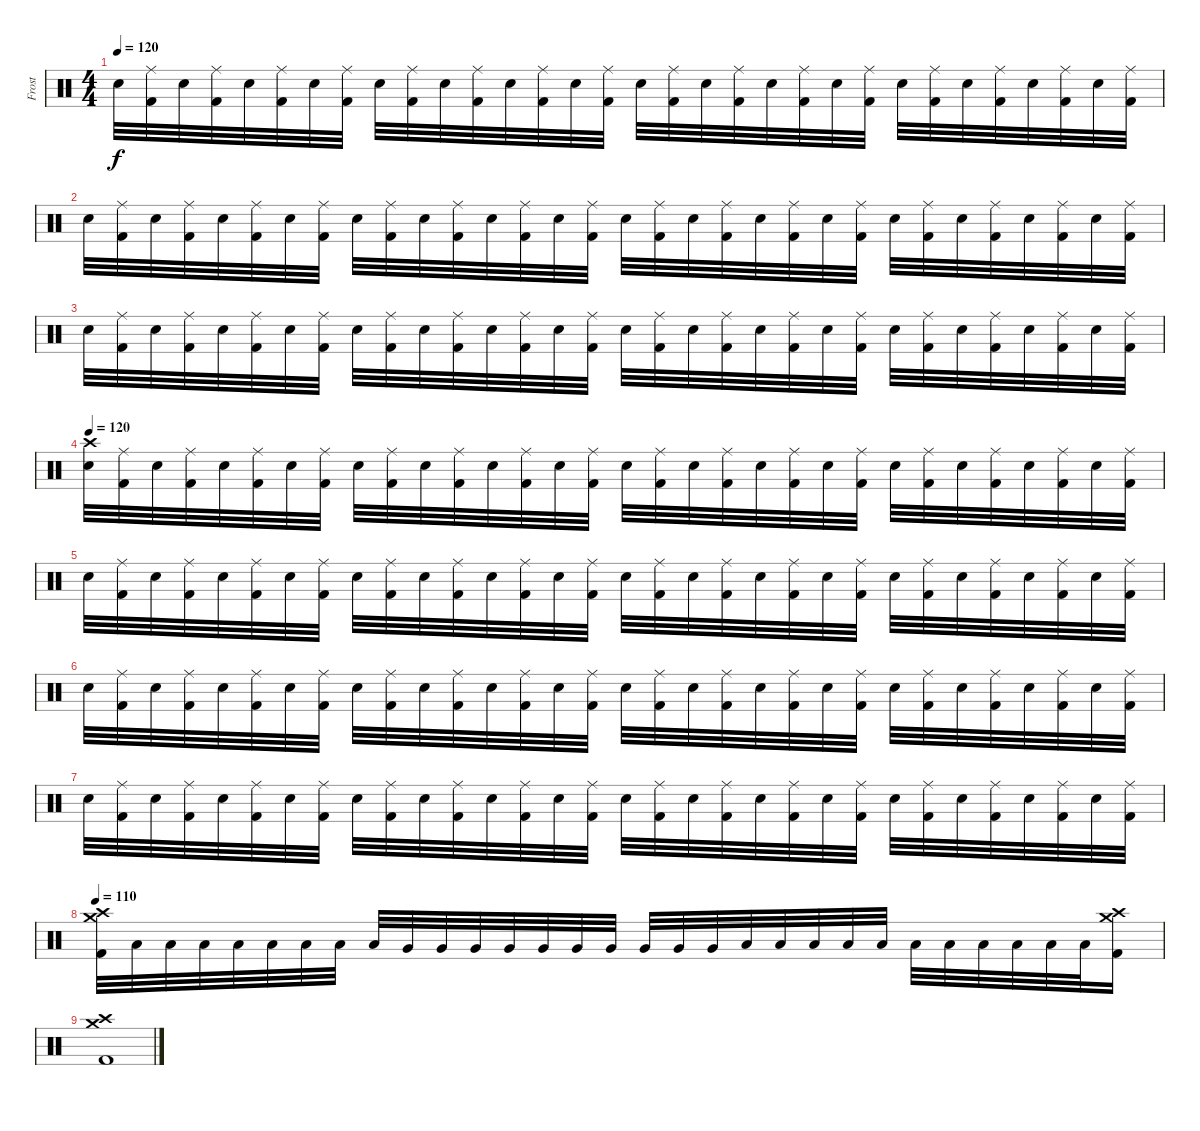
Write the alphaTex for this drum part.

\track ("Frost" "Frost") {instrument percussion}
\staff {score}
\articulation defaults
\ts (4 4)
\tempo 120
\clef neutral
\ks c "Snare (hit) 2".32{dy f}
("Ride (middle)" "Kick (hit) 2").32 "Snare (hit) 2".32 ("Ride (middle)" "Kick (hit) 2").32 "Snare (hit) 2".32 ("Ride (middle)" "Kick (hit) 2").32 "Snare (hit) 2".32 ("Ride (middle)" "Kick (hit) 2").32 "Snare (hit) 2".32 ("Ride (middle)" "Kick (hit) 2").32 "Snare (hit) 2".32 ("Ride (middle)" "Kick (hit) 2").32 "Snare (hit) 2".32 ("Ride (middle)" "Kick (hit) 2").32 "Snare (hit) 2".32 ("Ride (middle)" "Kick (hit) 2").32 "Snare (hit) 2".32 ("Ride (middle)" "Kick (hit) 2").32 "Snare (hit) 2".32 ("Ride (middle)" "Kick (hit) 2").32 "Snare (hit) 2".32 ("Ride (middle)" "Kick (hit) 2").32 "Snare (hit) 2".32 ("Ride (middle)" "Kick (hit) 2").32 "Snare (hit) 2".32 ("Ride (middle)" "Kick (hit) 2").32 "Snare (hit) 2".32 ("Ride (middle)" "Kick (hit) 2").32 "Snare (hit) 2".32 ("Ride (middle)" "Kick (hit) 2").32 "Snare (hit) 2".32 ("Ride (middle)" "Kick (hit) 2").32 |
"Snare (hit) 2".32 ("Ride (middle)" "Kick (hit) 2").32 "Snare (hit) 2".32 ("Ride (middle)" "Kick (hit) 2").32 "Snare (hit) 2".32 ("Ride (middle)" "Kick (hit) 2").32 "Snare (hit) 2".32 ("Ride (middle)" "Kick (hit) 2").32 "Snare (hit) 2".32 ("Ride (middle)" "Kick (hit) 2").32 "Snare (hit) 2".32 ("Ride (middle)" "Kick (hit) 2").32 "Snare (hit) 2".32 ("Ride (middle)" "Kick (hit) 2").32 "Snare (hit) 2".32 ("Ride (middle)" "Kick (hit) 2").32 "Snare (hit) 2".32 ("Ride (middle)" "Kick (hit) 2").32 "Snare (hit) 2".32 ("Ride (middle)" "Kick (hit) 2").32 "Snare (hit) 2".32 ("Ride (middle)" "Kick (hit) 2").32 "Snare (hit) 2".32 ("Ride (middle)" "Kick (hit) 2").32 "Snare (hit) 2".32 ("Ride (middle)" "Kick (hit) 2").32 "Snare (hit) 2".32 ("Ride (middle)" "Kick (hit) 2").32 "Snare (hit) 2".32 ("Ride (middle)" "Kick (hit) 2").32 "Snare (hit) 2".32 ("Ride (middle)" "Kick (hit) 2").32 |
"Snare (hit) 2".32 ("Ride (middle)" "Kick (hit) 2").32 "Snare (hit) 2".32 ("Ride (middle)" "Kick (hit) 2").32 "Snare (hit) 2".32 ("Ride (middle)" "Kick (hit) 2").32 "Snare (hit) 2".32 ("Ride (middle)" "Kick (hit) 2").32 "Snare (hit) 2".32 ("Ride (middle)" "Kick (hit) 2").32 "Snare (hit) 2".32 ("Ride (middle)" "Kick (hit) 2").32 "Snare (hit) 2".32 ("Ride (middle)" "Kick (hit) 2").32 "Snare (hit) 2".32 ("Ride (middle)" "Kick (hit) 2").32 "Snare (hit) 2".32 ("Ride (middle)" "Kick (hit) 2").32 "Snare (hit) 2".32 ("Ride (middle)" "Kick (hit) 2").32 "Snare (hit) 2".32 ("Ride (middle)" "Kick (hit) 2").32 "Snare (hit) 2".32 ("Ride (middle)" "Kick (hit) 2").32 "Snare (hit) 2".32 ("Ride (middle)" "Kick (hit) 2").32 "Snare (hit) 2".32 ("Ride (middle)" "Kick (hit) 2").32 "Snare (hit) 2".32 ("Ride (middle)" "Kick (hit) 2").32 "Snare (hit) 2".32 ("Ride (middle)" "Kick (hit) 2").32 |
\tempo 120
("Crash high (hit)" "Snare (hit) 2").32 ("Ride (middle)" "Kick (hit) 2").32 "Snare (hit) 2".32 ("Ride (middle)" "Kick (hit) 2").32 "Snare (hit) 2".32 ("Ride (middle)" "Kick (hit) 2").32 "Snare (hit) 2".32 ("Ride (middle)" "Kick (hit) 2").32 "Snare (hit) 2".32 ("Ride (middle)" "Kick (hit) 2").32 "Snare (hit) 2".32 ("Ride (middle)" "Kick (hit) 2").32 "Snare (hit) 2".32 ("Ride (middle)" "Kick (hit) 2").32 "Snare (hit) 2".32 ("Ride (middle)" "Kick (hit) 2").32 "Snare (hit) 2".32 ("Ride (middle)" "Kick (hit) 2").32 "Snare (hit) 2".32 ("Ride (middle)" "Kick (hit) 2").32 "Snare (hit) 2".32 ("Ride (middle)" "Kick (hit) 2").32 "Snare (hit) 2".32 ("Ride (middle)" "Kick (hit) 2").32 "Snare (hit) 2".32 ("Ride (middle)" "Kick (hit) 2").32 "Snare (hit) 2".32 ("Ride (middle)" "Kick (hit) 2").32 "Snare (hit) 2".32 ("Ride (middle)" "Kick (hit) 2").32 "Snare (hit) 2".32 ("Ride (middle)" "Kick (hit) 2").32 |
"Snare (hit) 2".32 ("Ride (middle)" "Kick (hit) 2").32 "Snare (hit) 2".32 ("Ride (middle)" "Kick (hit) 2").32 "Snare (hit) 2".32 ("Ride (middle)" "Kick (hit) 2").32 "Snare (hit) 2".32 ("Ride (middle)" "Kick (hit) 2").32 "Snare (hit) 2".32 ("Ride (middle)" "Kick (hit) 2").32 "Snare (hit) 2".32 ("Ride (middle)" "Kick (hit) 2").32 "Snare (hit) 2".32 ("Ride (middle)" "Kick (hit) 2").32 "Snare (hit) 2".32 ("Ride (middle)" "Kick (hit) 2").32 "Snare (hit) 2".32 ("Ride (middle)" "Kick (hit) 2").32 "Snare (hit) 2".32 ("Ride (middle)" "Kick (hit) 2").32 "Snare (hit) 2".32 ("Ride (middle)" "Kick (hit) 2").32 "Snare (hit) 2".32 ("Ride (middle)" "Kick (hit) 2").32 "Snare (hit) 2".32 ("Ride (middle)" "Kick (hit) 2").32 "Snare (hit) 2".32 ("Ride (middle)" "Kick (hit) 2").32 "Snare (hit) 2".32 ("Ride (middle)" "Kick (hit) 2").32 "Snare (hit) 2".32 ("Ride (middle)" "Kick (hit) 2").32 |
"Snare (hit) 2".32 ("Ride (middle)" "Kick (hit) 2").32 "Snare (hit) 2".32 ("Ride (middle)" "Kick (hit) 2").32 "Snare (hit) 2".32 ("Ride (middle)" "Kick (hit) 2").32 "Snare (hit) 2".32 ("Ride (middle)" "Kick (hit) 2").32 "Snare (hit) 2".32 ("Ride (middle)" "Kick (hit) 2").32 "Snare (hit) 2".32 ("Ride (middle)" "Kick (hit) 2").32 "Snare (hit) 2".32 ("Ride (middle)" "Kick (hit) 2").32 "Snare (hit) 2".32 ("Ride (middle)" "Kick (hit) 2").32 "Snare (hit) 2".32 ("Ride (middle)" "Kick (hit) 2").32 "Snare (hit) 2".32 ("Ride (middle)" "Kick (hit) 2").32 "Snare (hit) 2".32 ("Ride (middle)" "Kick (hit) 2").32 "Snare (hit) 2".32 ("Ride (middle)" "Kick (hit) 2").32 "Snare (hit) 2".32 ("Ride (middle)" "Kick (hit) 2").32 "Snare (hit) 2".32 ("Ride (middle)" "Kick (hit) 2").32 "Snare (hit) 2".32 ("Ride (middle)" "Kick (hit) 2").32 "Snare (hit) 2".32 ("Ride (middle)" "Kick (hit) 2").32 |
"Snare (hit) 2".32 ("Ride (middle)" "Kick (hit) 2").32 "Snare (hit) 2".32 ("Ride (middle)" "Kick (hit) 2").32 "Snare (hit) 2".32 ("Ride (middle)" "Kick (hit) 2").32 "Snare (hit) 2".32 ("Ride (middle)" "Kick (hit) 2").32 "Snare (hit) 2".32 ("Ride (middle)" "Kick (hit) 2").32 "Snare (hit) 2".32 ("Ride (middle)" "Kick (hit) 2").32 "Snare (hit) 2".32 ("Ride (middle)" "Kick (hit) 2").32 "Snare (hit) 2".32 ("Ride (middle)" "Kick (hit) 2").32 "Snare (hit) 2".32 ("Ride (middle)" "Kick (hit) 2").32 "Snare (hit) 2".32 ("Ride (middle)" "Kick (hit) 2").32 "Snare (hit) 2".32 ("Ride (middle)" "Kick (hit) 2").32 "Snare (hit) 2".32 ("Ride (middle)" "Kick (hit) 2").32 "Snare (hit) 2".32 ("Ride (middle)" "Kick (hit) 2").32 "Snare (hit) 2".32 ("Ride (middle)" "Kick (hit) 2").32 "Snare (hit) 2".32 ("Ride (middle)" "Kick (hit) 2").32 "Snare (hit) 2".32 ("Ride (middle)" "Kick (hit) 2").32 |
\tempo 110
("Crash high (hit)" "Crash medium (hit)" "Kick (hit) 2").32 "Low Tom (hit)".32 "Low Tom (hit)".32 "Low Tom (hit)".32 "Low Tom (hit)".32 "Low Tom (hit)".32 "Low Tom (hit)".32 "Low Tom (hit)".32 "Low Tom (hit)".32 "Very Low Tom (hit)".32 "Very Low Tom (hit)".32 "Very Low Tom (hit)".32 "Very Low Tom (hit)".32 "Very Low Tom (hit)".32 "Very Low Tom (hit)".32 "Very Low Tom (hit)".32 "Very Low Tom (hit)".32 "Very Low Tom (hit)".32 "Very Low Tom (hit)".32 "Low Floor Tom (hit)".32 "Low Floor Tom (hit)".32 "Low Floor Tom (hit)".32 "Low Floor Tom (hit)".32 "Low Floor Tom (hit)".32 "Low Floor Tom (hit)".32 "Low Floor Tom (hit)".32 "Low Floor Tom (hit)".32 "Low Floor Tom (hit)".32 "Low Floor Tom (hit)".32 "Low Floor Tom (hit)".32 ("Crash medium (hit)" "Crash high (hit)" "Kick (hit) 2").16 |
("Crash medium (hit)" "Crash high (hit)" "Kick (hit) 2").1
